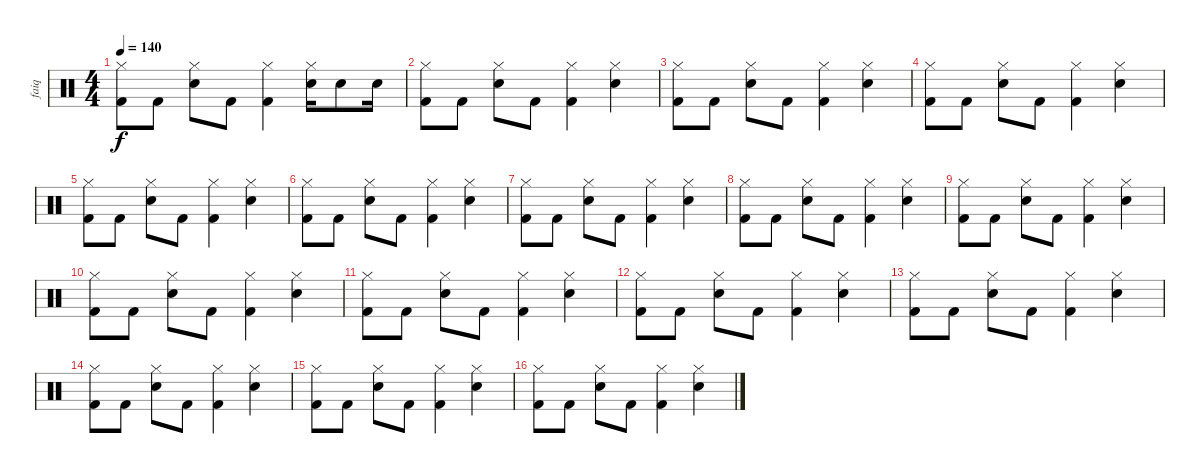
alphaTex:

\track ("faiq" "faiq") {instrument percussion}
\staff {score}
\articulation defaults
\ts (4 4)
\tempo 140
\clef neutral
\ks c
("Hi-Hat (closed)" "Kick (hit) 2").8{dy f} "Kick (hit) 2".8 ("Hi-Hat (closed)" "Electric Snare (hit)").8 "Kick (hit) 2".8 ("Hi-Hat (closed)" "Kick (hit) 2").4 ("Hi-Hat (closed)" "Electric Snare (hit)").16 "Electric Snare (hit)".8 "Electric Snare (hit)".16 |
("Hi-Hat (closed)" "Kick (hit) 2").8 "Kick (hit) 2".8 ("Hi-Hat (closed)" "Electric Snare (hit)").8 "Kick (hit) 2".8 ("Hi-Hat (closed)" "Kick (hit) 2").4 ("Hi-Hat (closed)" "Electric Snare (hit)").4 |
("Hi-Hat (closed)" "Kick (hit) 2").8 "Kick (hit) 2".8 ("Hi-Hat (closed)" "Electric Snare (hit)").8 "Kick (hit) 2".8 ("Hi-Hat (closed)" "Kick (hit) 2").4 ("Hi-Hat (closed)" "Electric Snare (hit)").4 |
("Hi-Hat (closed)" "Kick (hit) 2").8 "Kick (hit) 2".8 ("Hi-Hat (closed)" "Electric Snare (hit)").8 "Kick (hit) 2".8 ("Hi-Hat (closed)" "Kick (hit) 2").4 ("Hi-Hat (closed)" "Electric Snare (hit)").4 |
("Hi-Hat (closed)" "Kick (hit) 2").8 "Kick (hit) 2".8 ("Hi-Hat (closed)" "Electric Snare (hit)").8 "Kick (hit) 2".8 ("Hi-Hat (closed)" "Kick (hit) 2").4 ("Hi-Hat (closed)" "Electric Snare (hit)").4 |
("Hi-Hat (closed)" "Kick (hit) 2").8 "Kick (hit) 2".8 ("Hi-Hat (closed)" "Electric Snare (hit)").8 "Kick (hit) 2".8 ("Hi-Hat (closed)" "Kick (hit) 2").4 ("Hi-Hat (closed)" "Electric Snare (hit)").4 |
("Hi-Hat (closed)" "Kick (hit) 2").8 "Kick (hit) 2".8 ("Hi-Hat (closed)" "Electric Snare (hit)").8 "Kick (hit) 2".8 ("Hi-Hat (closed)" "Kick (hit) 2").4 ("Hi-Hat (closed)" "Electric Snare (hit)").4 |
("Hi-Hat (closed)" "Kick (hit) 2").8 "Kick (hit) 2".8 ("Hi-Hat (closed)" "Electric Snare (hit)").8 "Kick (hit) 2".8 ("Hi-Hat (closed)" "Kick (hit) 2").4 ("Hi-Hat (closed)" "Electric Snare (hit)").4 |
("Hi-Hat (closed)" "Kick (hit) 2").8 "Kick (hit) 2".8 ("Hi-Hat (closed)" "Electric Snare (hit)").8 "Kick (hit) 2".8 ("Hi-Hat (closed)" "Kick (hit) 2").4 ("Hi-Hat (closed)" "Electric Snare (hit)").4 |
("Hi-Hat (closed)" "Kick (hit) 2").8 "Kick (hit) 2".8 ("Hi-Hat (closed)" "Electric Snare (hit)").8 "Kick (hit) 2".8 ("Hi-Hat (closed)" "Kick (hit) 2").4 ("Hi-Hat (closed)" "Electric Snare (hit)").4 |
("Hi-Hat (closed)" "Kick (hit) 2").8 "Kick (hit) 2".8 ("Hi-Hat (closed)" "Electric Snare (hit)").8 "Kick (hit) 2".8 ("Hi-Hat (closed)" "Kick (hit) 2").4 ("Hi-Hat (closed)" "Electric Snare (hit)").4 |
("Hi-Hat (closed)" "Kick (hit) 2").8 "Kick (hit) 2".8 ("Hi-Hat (closed)" "Electric Snare (hit)").8 "Kick (hit) 2".8 ("Hi-Hat (closed)" "Kick (hit) 2").4 ("Hi-Hat (closed)" "Electric Snare (hit)").4 |
("Hi-Hat (closed)" "Kick (hit) 2").8 "Kick (hit) 2".8 ("Hi-Hat (closed)" "Electric Snare (hit)").8 "Kick (hit) 2".8 ("Hi-Hat (closed)" "Kick (hit) 2").4 ("Hi-Hat (closed)" "Electric Snare (hit)").4 |
("Hi-Hat (closed)" "Kick (hit) 2").8 "Kick (hit) 2".8 ("Hi-Hat (closed)" "Electric Snare (hit)").8 "Kick (hit) 2".8 ("Hi-Hat (closed)" "Kick (hit) 2").4 ("Hi-Hat (closed)" "Electric Snare (hit)").4 |
("Hi-Hat (closed)" "Kick (hit) 2").8 "Kick (hit) 2".8 ("Hi-Hat (closed)" "Electric Snare (hit)").8 "Kick (hit) 2".8 ("Hi-Hat (closed)" "Kick (hit) 2").4 ("Hi-Hat (closed)" "Electric Snare (hit)").4 |
("Hi-Hat (closed)" "Kick (hit) 2").8 "Kick (hit) 2".8 ("Hi-Hat (closed)" "Electric Snare (hit)").8 "Kick (hit) 2".8 ("Hi-Hat (closed)" "Kick (hit) 2").4 ("Hi-Hat (closed)" "Electric Snare (hit)").4
